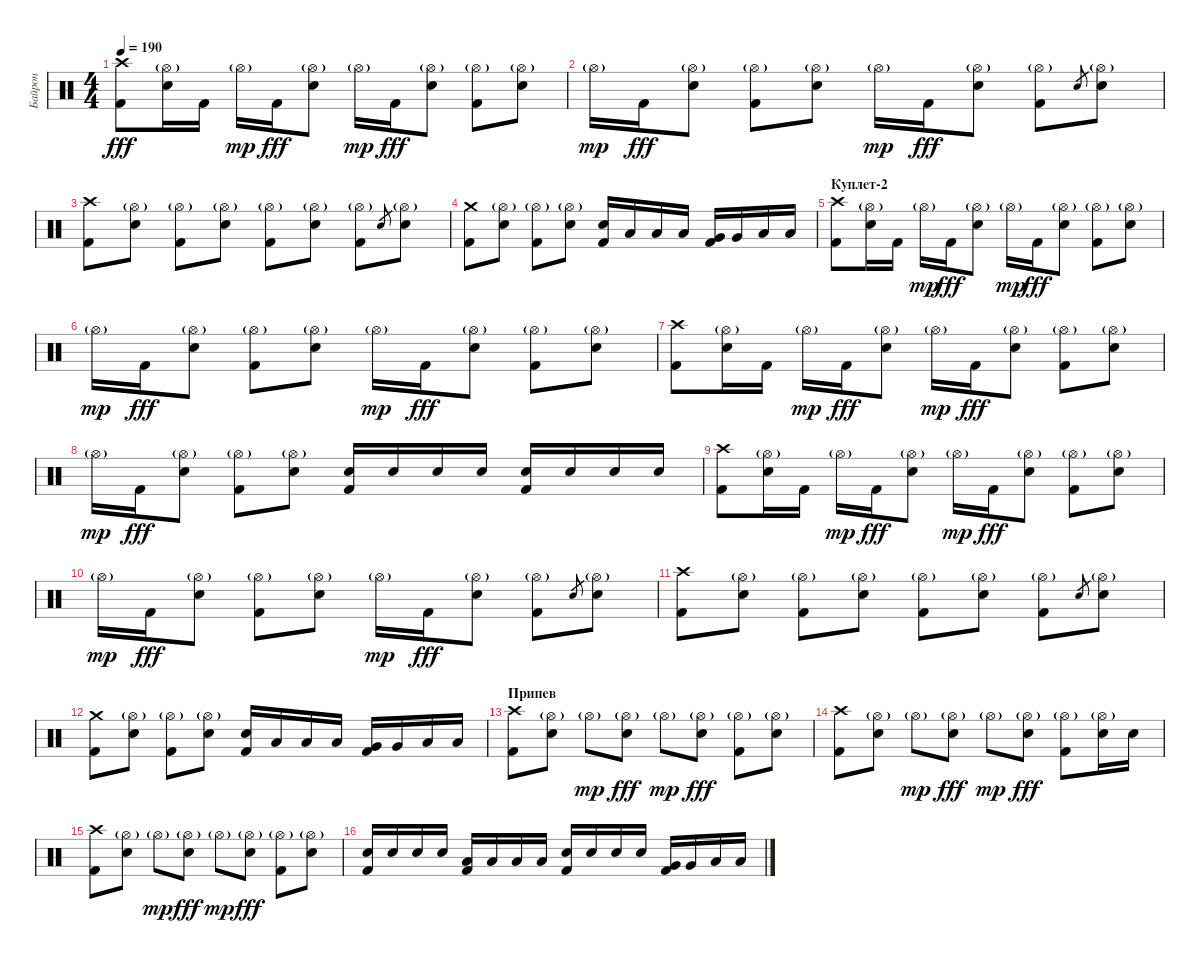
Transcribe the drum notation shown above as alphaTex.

\track ("Байрон" "Байрон") {instrument percussion}
\staff {score}
\articulation defaults
\ts (4 4)
\tempo 190
\clef neutral
\ks c
("Crash high (hit)" "Kick (hit) 2").8{dy fff} ("Hi-Hat (open)"{g} "Electric Snare (hit)").16 "Kick (hit) 2".16 "Hi-Hat (open)"{g}.16{dy mp} "Kick (hit) 2".16{dy fff} ("Hi-Hat (open)"{g} "Electric Snare (hit)").8 "Hi-Hat (open)"{g}.16{dy mp} "Kick (hit) 2".16{dy fff} ("Hi-Hat (open)"{g} "Electric Snare (hit)").8 ("Hi-Hat (open)"{g} "Kick (hit) 2").8 ("Hi-Hat (open)"{g} "Electric Snare (hit)").8 |
"Hi-Hat (open)"{g}.16{dy mp} "Kick (hit) 2".16{dy fff} ("Hi-Hat (open)"{g} "Electric Snare (hit)").8 ("Hi-Hat (open)"{g} "Kick (hit) 2").8 ("Hi-Hat (open)"{g} "Electric Snare (hit)").8 "Hi-Hat (open)"{g}.16{dy mp} "Kick (hit) 2".16{dy fff} ("Hi-Hat (open)"{g} "Electric Snare (hit)").8 ("Hi-Hat (open)"{g} "Kick (hit) 2").8 "Electric Snare (hit)".8{gr} ("Hi-Hat (open)"{g} "Electric Snare (hit)").8 |
("Crash high (hit)" "Kick (hit) 2").8 ("Hi-Hat (open)"{g} "Electric Snare (hit)").8 ("Hi-Hat (open)"{g} "Kick (hit) 2").8 ("Hi-Hat (open)"{g} "Electric Snare (hit)").8 ("Hi-Hat (open)"{g} "Kick (hit) 2").8 ("Hi-Hat (open)"{g} "Electric Snare (hit)").8 ("Hi-Hat (open)"{g} "Kick (hit) 2").8 "Electric Snare (hit)".8{gr} ("Hi-Hat (open)"{g} "Electric Snare (hit)").8 |
("Crash medium (hit)" "Kick (hit) 2").8 ("Hi-Hat (open)"{g} "Electric Snare (hit)").8 ("Hi-Hat (open)"{g} "Kick (hit) 2").8 ("Hi-Hat (open)"{g} "Electric Snare (hit)").8 ("Electric Snare (hit)" "Kick (hit) 2").16 "Low Tom (hit)".16 "Low Tom (hit)".16 "Low Tom (hit)".16 ("Very Low Tom (hit)" "Kick (hit) 2").16 "Very Low Tom (hit)".16 "Low Floor Tom (hit)".16 "Low Floor Tom (hit)".16 |
\section ("" "Куплет-2")
("Crash high (hit)" "Kick (hit) 2").8 ("Hi-Hat (open)"{g} "Electric Snare (hit)").16 "Kick (hit) 2".16 "Hi-Hat (open)"{g}.16{dy mp} "Kick (hit) 2".16{dy fff} ("Hi-Hat (open)"{g} "Electric Snare (hit)").8 "Hi-Hat (open)"{g}.16{dy mp} "Kick (hit) 2".16{dy fff} ("Hi-Hat (open)"{g} "Electric Snare (hit)").8 ("Hi-Hat (open)"{g} "Kick (hit) 2").8 ("Hi-Hat (open)"{g} "Electric Snare (hit)").8 |
"Hi-Hat (open)"{g}.16{dy mp} "Kick (hit) 2".16{dy fff} ("Hi-Hat (open)"{g} "Electric Snare (hit)").8 ("Hi-Hat (open)"{g} "Kick (hit) 2").8 ("Hi-Hat (open)"{g} "Electric Snare (hit)").8 "Hi-Hat (open)"{g}.16{dy mp} "Kick (hit) 2".16{dy fff} ("Hi-Hat (open)"{g} "Electric Snare (hit)").8 ("Hi-Hat (open)"{g} "Kick (hit) 2").8 ("Hi-Hat (open)"{g} "Electric Snare (hit)").8 |
("Crash high (hit)" "Kick (hit) 2").8 ("Hi-Hat (open)"{g} "Electric Snare (hit)").16 "Kick (hit) 2".16 "Hi-Hat (open)"{g}.16{dy mp} "Kick (hit) 2".16{dy fff} ("Hi-Hat (open)"{g} "Electric Snare (hit)").8 "Hi-Hat (open)"{g}.16{dy mp} "Kick (hit) 2".16{dy fff} ("Hi-Hat (open)"{g} "Electric Snare (hit)").8 ("Hi-Hat (open)"{g} "Kick (hit) 2").8 ("Hi-Hat (open)"{g} "Electric Snare (hit)").8 |
"Hi-Hat (open)"{g}.16{dy mp} "Kick (hit) 2".16{dy fff} ("Hi-Hat (open)"{g} "Electric Snare (hit)").8 ("Hi-Hat (open)"{g} "Kick (hit) 2").8 ("Hi-Hat (open)"{g} "Electric Snare (hit)").8 ("Electric Snare (hit)" "Kick (hit) 2").16 "Electric Snare (hit)".16 "Electric Snare (hit)".16 "Electric Snare (hit)".16 ("Electric Snare (hit)" "Kick (hit) 2").16 "Electric Snare (hit)".16 "Electric Snare (hit)".16 "Electric Snare (hit)".16 |
("Crash high (hit)" "Kick (hit) 2").8 ("Hi-Hat (open)"{g} "Electric Snare (hit)").16 "Kick (hit) 2".16 "Hi-Hat (open)"{g}.16{dy mp} "Kick (hit) 2".16{dy fff} ("Hi-Hat (open)"{g} "Electric Snare (hit)").8 "Hi-Hat (open)"{g}.16{dy mp} "Kick (hit) 2".16{dy fff} ("Hi-Hat (open)"{g} "Electric Snare (hit)").8 ("Hi-Hat (open)"{g} "Kick (hit) 2").8 ("Hi-Hat (open)"{g} "Electric Snare (hit)").8 |
"Hi-Hat (open)"{g}.16{dy mp} "Kick (hit) 2".16{dy fff} ("Hi-Hat (open)"{g} "Electric Snare (hit)").8 ("Hi-Hat (open)"{g} "Kick (hit) 2").8 ("Hi-Hat (open)"{g} "Electric Snare (hit)").8 "Hi-Hat (open)"{g}.16{dy mp} "Kick (hit) 2".16{dy fff} ("Hi-Hat (open)"{g} "Electric Snare (hit)").8 ("Hi-Hat (open)"{g} "Kick (hit) 2").8 "Electric Snare (hit)".8{gr} ("Hi-Hat (open)"{g} "Electric Snare (hit)").8 |
("Crash high (hit)" "Kick (hit) 2").8 ("Hi-Hat (open)"{g} "Electric Snare (hit)").8 ("Hi-Hat (open)"{g} "Kick (hit) 2").8 ("Hi-Hat (open)"{g} "Electric Snare (hit)").8 ("Hi-Hat (open)"{g} "Kick (hit) 2").8 ("Hi-Hat (open)"{g} "Electric Snare (hit)").8 ("Hi-Hat (open)"{g} "Kick (hit) 2").8 "Electric Snare (hit)".8{gr} ("Hi-Hat (open)"{g} "Electric Snare (hit)").8 |
("Crash medium (hit)" "Kick (hit) 2").8 ("Hi-Hat (open)"{g} "Electric Snare (hit)").8 ("Hi-Hat (open)"{g} "Kick (hit) 2").8 ("Hi-Hat (open)"{g} "Electric Snare (hit)").8 ("Electric Snare (hit)" "Kick (hit) 2").16 "Low Tom (hit)".16 "Low Tom (hit)".16 "Low Tom (hit)".16 ("Very Low Tom (hit)" "Kick (hit) 2").16 "Very Low Tom (hit)".16 "Low Floor Tom (hit)".16 "Low Floor Tom (hit)".16 |
\section ("" "Припев")
("Crash high (hit)" "Kick (hit) 2").8 ("Hi-Hat (open)"{g} "Electric Snare (hit)").8 "Hi-Hat (open)"{g}.8{dy mp} ("Hi-Hat (open)"{g} "Electric Snare (hit)").8{dy fff} "Hi-Hat (open)"{g}.8{dy mp} ("Hi-Hat (open)"{g} "Electric Snare (hit)").8{dy fff} ("Hi-Hat (open)"{g} "Kick (hit) 2").8 ("Hi-Hat (open)"{g} "Electric Snare (hit)").8 |
("Crash high (hit)" "Kick (hit) 2").8 ("Hi-Hat (open)"{g} "Electric Snare (hit)").8 "Hi-Hat (open)"{g}.8{dy mp} ("Hi-Hat (open)"{g} "Electric Snare (hit)").8{dy fff} "Hi-Hat (open)"{g}.8{dy mp} ("Hi-Hat (open)"{g} "Electric Snare (hit)").8{dy fff} ("Hi-Hat (open)"{g} "Kick (hit) 2").8 ("Hi-Hat (open)"{g} "Electric Snare (hit)").16 "Electric Snare (hit)".16 |
("Crash high (hit)" "Kick (hit) 2").8 ("Hi-Hat (open)"{g} "Electric Snare (hit)").8 "Hi-Hat (open)"{g}.8{dy mp} ("Hi-Hat (open)"{g} "Electric Snare (hit)").8{dy fff} "Hi-Hat (open)"{g}.8{dy mp} ("Hi-Hat (open)"{g} "Electric Snare (hit)").8{dy fff} ("Hi-Hat (open)"{g} "Kick (hit) 2").8 ("Hi-Hat (open)"{g} "Electric Snare (hit)").8 |
("Electric Snare (hit)" "Kick (hit) 2").16 "Electric Snare (hit)".16 "Electric Snare (hit)".16 "Electric Snare (hit)".16 ("Low Tom (hit)" "Kick (hit) 2").16 "Low Tom (hit)".16 "Low Tom (hit)".16 "Low Tom (hit)".16 ("Electric Snare (hit)" "Kick (hit) 2").16 "Electric Snare (hit)".16 "Electric Snare (hit)".16 "Electric Snare (hit)".16 ("Very Low Tom (hit)" "Kick (hit) 2").16 "Very Low Tom (hit)".16 "Low Floor Tom (hit)".16 "Low Floor Tom (hit)".16
